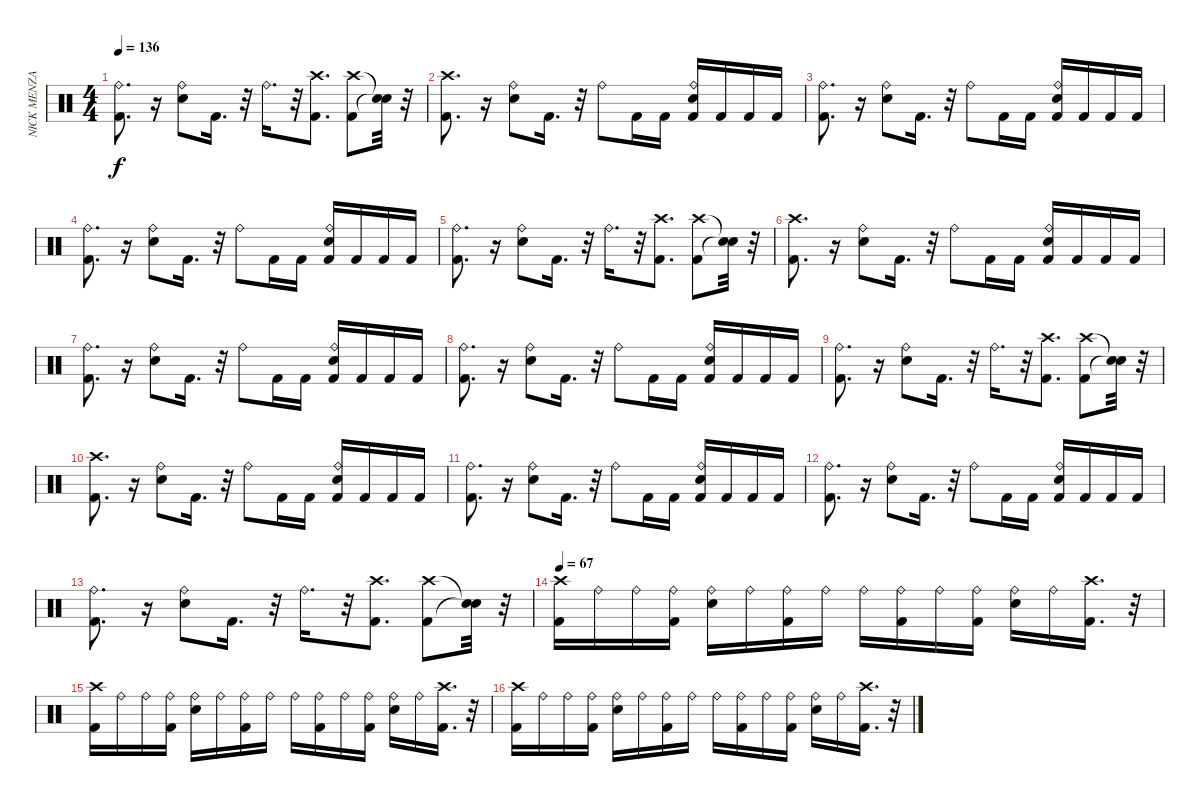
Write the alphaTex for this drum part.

\track ("NICK MENZA" "NICK MENZA") {instrument percussion}
\staff {score}
\articulation defaults
\ts (4 4)
\tempo 136
\clef neutral
\ks c
("Kick (hit) 2" "Ride (bell)").8{d dy f} r.16 ("Snare (hit) 2" "Ride (bell)").8 "Kick (hit) 2".16{d} r.32 "Ride (bell)".16{d} r.32 ("Kick (hit) 2" "Crash high (hit)").8{d} ("Crash high (hit)" "Kick (hit) 2").8 ("Snare (hit)"{t} "Snare (hit)"{t}).32 r.32 |
("Crash high (hit)" "Kick (hit) 2").8{d} r.16 ("Ride (bell)" "Snare (hit) 2").8 "Kick (hit) 2".16{d} r.32 "Ride (bell)".8 "Kick (hit) 2".16 "Kick (hit) 2".16 ("Snare (hit) 2" "Ride (bell)" "Kick (hit) 2").16 "Kick (hit) 2".16 "Kick (hit) 2".16 "Kick (hit) 2".16 |
("Ride (bell)" "Kick (hit) 2").8{d} r.16 ("Ride (bell)" "Snare (hit) 2").8 "Kick (hit) 2".16{d} r.32 "Ride (bell)".8 "Kick (hit) 2".16 "Kick (hit) 2".16 ("Ride (bell)" "Snare (hit) 2" "Kick (hit) 2").16 "Kick (hit) 2".16 "Kick (hit) 2".16 "Kick (hit) 2".16 |
("Ride (bell)" "Kick (hit) 2").8{d} r.16 ("Snare (hit) 2" "Ride (bell)").8 "Kick (hit) 2".16{d} r.32 "Ride (bell)".8 "Kick (hit) 2".16 "Kick (hit) 2".16 ("Ride (bell)" "Snare (hit) 2" "Kick (hit) 2").16 "Kick (hit) 2".16 "Kick (hit) 2".16 "Kick (hit) 2".16 |
("Kick (hit) 2" "Ride (bell)").8{d} r.16 ("Snare (hit) 2" "Ride (bell)").8 "Kick (hit) 2".16{d} r.32 "Ride (bell)".16{d} r.32 ("Kick (hit) 2" "Crash high (hit)").8{d} ("Crash high (hit)" "Kick (hit) 2").8 ("Snare (hit)"{t} "Snare (hit)"{t}).32 r.32 |
("Kick (hit) 2" "Crash high (hit)").8{d} r.16 ("Ride (bell)" "Snare (hit) 2").8 "Kick (hit) 2".16{d} r.32 "Ride (bell)".8 "Kick (hit) 2".16 "Kick (hit) 2".16 ("Ride (bell)" "Snare (hit) 2" "Kick (hit) 2").16 "Kick (hit) 2".16 "Kick (hit) 2".16 "Kick (hit) 2".16 |
("Kick (hit) 2" "Ride (bell)").8{d} r.16 ("Ride (bell)" "Snare (hit) 2").8 "Kick (hit) 2".16{d} r.32 "Ride (bell)".8 "Kick (hit) 2".16 "Kick (hit) 2".16 ("Ride (bell)" "Snare (hit) 2" "Kick (hit) 2").16 "Kick (hit) 2".16 "Kick (hit) 2".16 "Kick (hit) 2".16 |
("Kick (hit) 2" "Ride (bell)").8{d} r.16 ("Ride (bell)" "Snare (hit) 2").8 "Kick (hit) 2".16{d} r.32 "Ride (bell)".8 "Kick (hit) 2".16 "Kick (hit) 2".16 ("Snare (hit) 2" "Ride (bell)" "Kick (hit) 2").16 "Kick (hit) 2".16 "Kick (hit) 2".16 "Kick (hit) 2".16 |
("Kick (hit) 2" "Ride (bell)").8{d} r.16 ("Snare (hit) 2" "Ride (bell)").8 "Kick (hit) 2".16{d} r.32 "Ride (bell)".16{d} r.32 ("Kick (hit) 2" "Crash high (hit)").8{d} ("Crash high (hit)" "Kick (hit) 2").8 ("Snare (hit)"{t} "Snare (hit)"{t}).32 r.32 |
("Crash high (hit)" "Kick (hit) 2").8{d} r.16 ("Ride (bell)" "Snare (hit) 2").8 "Kick (hit) 2".16{d} r.32 "Ride (bell)".8 "Kick (hit) 2".16 "Kick (hit) 2".16 ("Ride (bell)" "Snare (hit) 2" "Kick (hit) 2").16 "Kick (hit) 2".16 "Kick (hit) 2".16 "Kick (hit) 2".16 |
("Ride (bell)" "Kick (hit) 2").8{d} r.16 ("Ride (bell)" "Snare (hit) 2").8 "Kick (hit) 2".16{d} r.32 "Ride (bell)".8 "Kick (hit) 2".16 "Kick (hit) 2".16 ("Ride (bell)" "Snare (hit) 2" "Kick (hit) 2").16 "Kick (hit) 2".16 "Kick (hit) 2".16 "Kick (hit) 2".16 |
("Ride (bell)" "Kick (hit) 2").8{d} r.16 ("Snare (hit) 2" "Ride (bell)").8 "Kick (hit) 2".16{d} r.32 "Ride (bell)".8 "Kick (hit) 2".16 "Kick (hit) 2".16 ("Ride (bell)" "Snare (hit) 2" "Kick (hit) 2").16 "Kick (hit) 2".16 "Kick (hit) 2".16 "Kick (hit) 2".16 |
("Kick (hit) 2" "Ride (bell)").8{d} r.16 ("Snare (hit) 2" "Ride (bell)").8 "Kick (hit) 2".16{d} r.32 "Ride (bell)".16{d} r.32 ("Kick (hit) 2" "Crash high (hit)").8{d} ("Crash high (hit)" "Kick (hit) 2").8 ("Snare (hit)"{t} "Snare (hit)"{t}).32 r.32 |
\tempo 67
("Kick (hit) 2" "Crash high (hit)").16 "Ride (bell)".16 "Ride (bell)".16 ("Kick (hit) 2" "Ride (bell)").16 ("Snare (hit) 2" "Ride (bell)").16 "Ride (bell)".16 ("Ride (bell)" "Kick (hit) 2").16 "Ride (bell)".16 "Ride (bell)".16 ("Kick (hit) 2" "Ride (bell)").16 "Ride (bell)".16 ("Kick (hit) 2" "Ride (bell)").16 ("Ride (bell)" "Snare (hit) 2").16 "Ride (bell)".16 ("Crash high (hit)" "Kick (hit) 2").16{d} r.32 |
("Crash high (hit)" "Kick (hit) 2").16 "Ride (bell)".16 "Ride (bell)".16 ("Ride (bell)" "Kick (hit) 2").16 ("Ride (bell)" "Snare (hit) 2").16 "Ride (bell)".16 ("Ride (bell)" "Kick (hit) 2").16 "Ride (bell)".16 "Ride (bell)".16 ("Kick (hit) 2" "Ride (bell)").16 "Ride (bell)".16 ("Kick (hit) 2" "Ride (bell)").16 ("Snare (hit) 2" "Ride (bell)").16 "Ride (bell)".16 ("Kick (hit) 2" "Crash high (hit)").16{d} r.32 |
("Crash high (hit)" "Kick (hit) 2").16 "Ride (bell)".16 "Ride (bell)".16 ("Ride (bell)" "Kick (hit) 2").16 ("Snare (hit) 2" "Ride (bell)").16 "Ride (bell)".16 ("Ride (bell)" "Kick (hit) 2").16 "Ride (bell)".16 "Ride (bell)".16 ("Kick (hit) 2" "Ride (bell)").16 "Ride (bell)".16 ("Ride (bell)" "Kick (hit) 2").16 ("Ride (bell)" "Snare (hit) 2").16 "Ride (bell)".16 ("Kick (hit) 2" "Crash high (hit)").16{d} r.32
